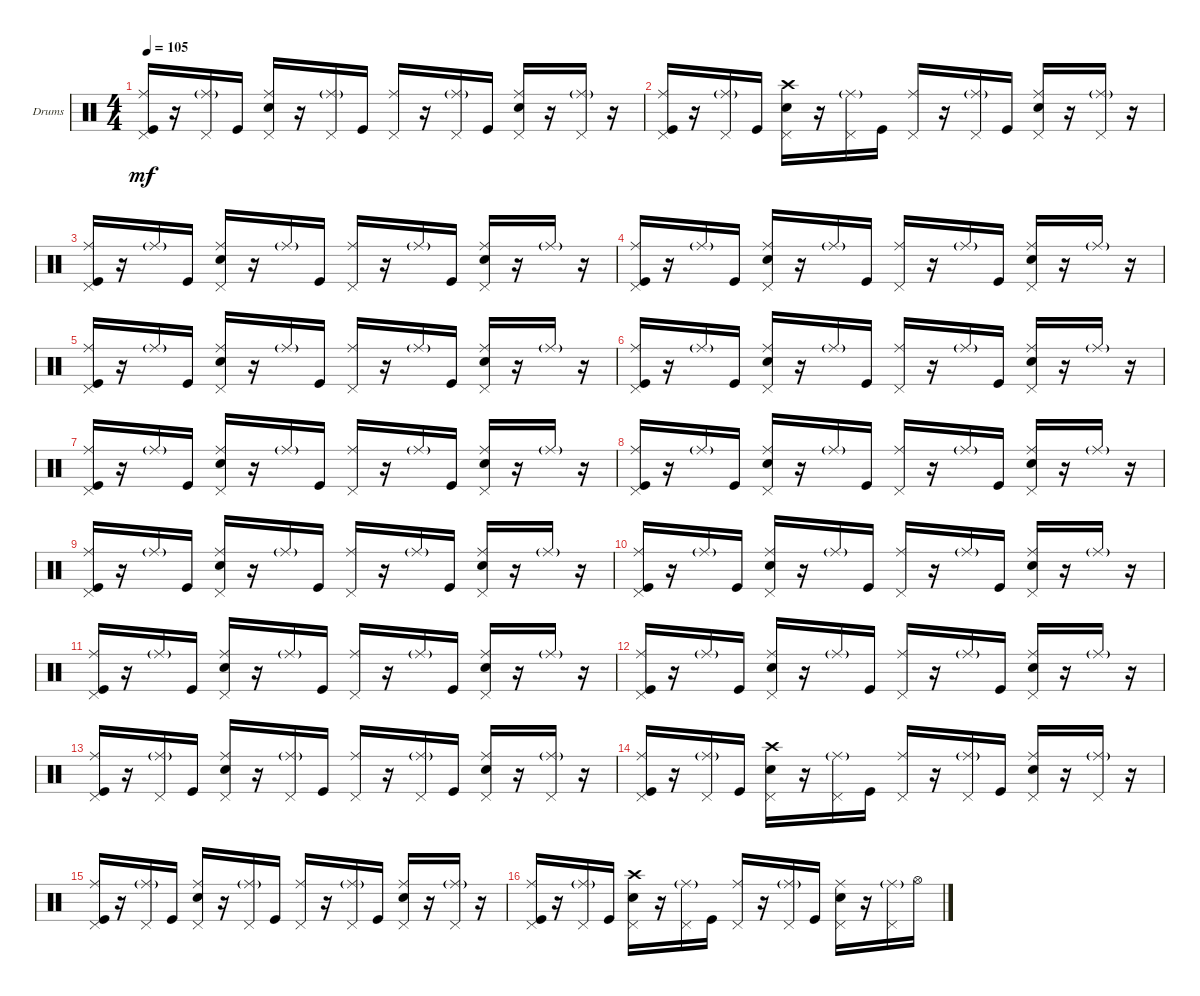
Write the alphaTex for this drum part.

\defaultSystemsLayout 4
\bracketExtendMode groupsimilarinstruments
\firstSystemTrackNameOrientation horizontal
\otherSystemsTrackNameOrientation horizontal
\track ("Godd" "Drums") {instrument percussion}
\staff {score}
\articulation defaults
\ts (4 4)
\tempo 105
\clef neutral
\ks c
("Pedal Hi-Hat (hit)" "Kick (hit)" "Ride (middle)").16{dy mf} r.16 ("Pedal Hi-Hat (hit)" "Ride (middle)"{g}).16 "Kick (hit)".16 ("Pedal Hi-Hat (hit)" "Snare (hit) 2" "Ride (middle)").16 r.16 ("Pedal Hi-Hat (hit)" "Ride (middle)"{g}).16 "Kick (hit)".16 ("Pedal Hi-Hat (hit)" "Ride (middle)").16 r.16 ("Pedal Hi-Hat (hit)" "Ride (middle)"{g}).16 "Kick (hit)".16 ("Pedal Hi-Hat (hit)" "Ride (middle)" "Snare (hit) 2").16 r.16 ("Pedal Hi-Hat (hit)" "Ride (middle)"{g}).16 r.16 |
("Pedal Hi-Hat (hit)" "Kick (hit)" "Ride (middle)").16 r.16 ("Pedal Hi-Hat (hit)" "Ride (middle)"{g}).16 "Kick (hit)".16 ("Pedal Hi-Hat (hit)" "Snare (hit) 2" "Crash high (hit)").16 r.16 ("Pedal Hi-Hat (hit)" "Ride (middle)"{g}).16 "Kick (hit)".16 ("Pedal Hi-Hat (hit)" "Ride (middle)").16 r.16 ("Pedal Hi-Hat (hit)" "Ride (middle)"{g}).16 "Kick (hit)".16 ("Pedal Hi-Hat (hit)" "Ride (middle)" "Snare (hit) 2").16 r.16 ("Pedal Hi-Hat (hit)" "Ride (middle)"{g}).16 r.16 |
("Pedal Hi-Hat (hit)" "Kick (hit)" "Ride (middle)").16 r.16 "Ride (middle)"{g}.16 "Kick (hit)".16 ("Pedal Hi-Hat (hit)" "Snare (hit) 2" "Ride (middle)").16 r.16 "Ride (middle)"{g}.16 "Kick (hit)".16 ("Pedal Hi-Hat (hit)" "Ride (middle)").16 r.16 "Ride (middle)"{g}.16 "Kick (hit)".16 ("Pedal Hi-Hat (hit)" "Ride (middle)" "Snare (hit) 2").16 r.16 "Ride (middle)"{g}.16 r.16 |
("Pedal Hi-Hat (hit)" "Kick (hit)" "Ride (middle)").16 r.16 "Ride (middle)"{g}.16 "Kick (hit)".16 ("Pedal Hi-Hat (hit)" "Snare (hit) 2" "Ride (middle)").16 r.16 "Ride (middle)"{g}.16 "Kick (hit)".16 ("Pedal Hi-Hat (hit)" "Ride (middle)").16 r.16 "Ride (middle)"{g}.16 "Kick (hit)".16 ("Pedal Hi-Hat (hit)" "Ride (middle)" "Snare (hit) 2").16 r.16 "Ride (middle)"{g}.16 r.16 |
("Pedal Hi-Hat (hit)" "Kick (hit)" "Ride (middle)").16 r.16 "Ride (middle)"{g}.16 "Kick (hit)".16 ("Pedal Hi-Hat (hit)" "Snare (hit) 2" "Ride (middle)").16 r.16 "Ride (middle)"{g}.16 "Kick (hit)".16 ("Pedal Hi-Hat (hit)" "Ride (middle)").16 r.16 "Ride (middle)"{g}.16 "Kick (hit)".16 ("Pedal Hi-Hat (hit)" "Ride (middle)" "Snare (hit) 2").16 r.16 "Ride (middle)"{g}.16 r.16 |
("Pedal Hi-Hat (hit)" "Kick (hit)" "Ride (middle)").16 r.16 "Ride (middle)"{g}.16 "Kick (hit)".16 ("Pedal Hi-Hat (hit)" "Snare (hit) 2" "Ride (middle)").16 r.16 "Ride (middle)"{g}.16 "Kick (hit)".16 ("Pedal Hi-Hat (hit)" "Ride (middle)").16 r.16 "Ride (middle)"{g}.16 "Kick (hit)".16 ("Pedal Hi-Hat (hit)" "Ride (middle)" "Snare (hit) 2").16 r.16 "Ride (middle)"{g}.16 r.16 |
("Pedal Hi-Hat (hit)" "Kick (hit)" "Ride (middle)").16 r.16 "Ride (middle)"{g}.16 "Kick (hit)".16 ("Pedal Hi-Hat (hit)" "Snare (hit) 2" "Ride (middle)").16 r.16 "Ride (middle)"{g}.16 "Kick (hit)".16 ("Pedal Hi-Hat (hit)" "Ride (middle)").16 r.16 "Ride (middle)"{g}.16 "Kick (hit)".16 ("Pedal Hi-Hat (hit)" "Ride (middle)" "Snare (hit) 2").16 r.16 "Ride (middle)"{g}.16 r.16 |
("Pedal Hi-Hat (hit)" "Kick (hit)" "Ride (middle)").16 r.16 "Ride (middle)"{g}.16 "Kick (hit)".16 ("Pedal Hi-Hat (hit)" "Snare (hit) 2" "Ride (middle)").16 r.16 "Ride (middle)"{g}.16 "Kick (hit)".16 ("Pedal Hi-Hat (hit)" "Ride (middle)").16 r.16 "Ride (middle)"{g}.16 "Kick (hit)".16 ("Pedal Hi-Hat (hit)" "Ride (middle)" "Snare (hit) 2").16 r.16 "Ride (middle)"{g}.16 r.16 |
("Pedal Hi-Hat (hit)" "Kick (hit)" "Ride (middle)").16 r.16 "Ride (middle)"{g}.16 "Kick (hit)".16 ("Pedal Hi-Hat (hit)" "Snare (hit) 2" "Ride (middle)").16 r.16 "Ride (middle)"{g}.16 "Kick (hit)".16 ("Pedal Hi-Hat (hit)" "Ride (middle)").16 r.16 "Ride (middle)"{g}.16 "Kick (hit)".16 ("Pedal Hi-Hat (hit)" "Ride (middle)" "Snare (hit) 2").16 r.16 "Ride (middle)"{g}.16 r.16 |
("Pedal Hi-Hat (hit)" "Kick (hit)" "Ride (middle)").16 r.16 "Ride (middle)"{g}.16 "Kick (hit)".16 ("Pedal Hi-Hat (hit)" "Snare (hit) 2" "Ride (middle)").16 r.16 "Ride (middle)"{g}.16 "Kick (hit)".16 ("Pedal Hi-Hat (hit)" "Ride (middle)").16 r.16 "Ride (middle)"{g}.16 "Kick (hit)".16 ("Pedal Hi-Hat (hit)" "Ride (middle)" "Snare (hit) 2").16 r.16 "Ride (middle)"{g}.16 r.16 |
("Pedal Hi-Hat (hit)" "Kick (hit)" "Ride (middle)").16 r.16 "Ride (middle)"{g}.16 "Kick (hit)".16 ("Pedal Hi-Hat (hit)" "Snare (hit) 2" "Ride (middle)").16 r.16 "Ride (middle)"{g}.16 "Kick (hit)".16 ("Pedal Hi-Hat (hit)" "Ride (middle)").16 r.16 "Ride (middle)"{g}.16 "Kick (hit)".16 ("Pedal Hi-Hat (hit)" "Ride (middle)" "Snare (hit) 2").16 r.16 "Ride (middle)"{g}.16 r.16 |
("Pedal Hi-Hat (hit)" "Kick (hit)" "Ride (middle)").16 r.16 "Ride (middle)"{g}.16 "Kick (hit)".16 ("Pedal Hi-Hat (hit)" "Snare (hit) 2" "Ride (middle)").16 r.16 "Ride (middle)"{g}.16 "Kick (hit)".16 ("Pedal Hi-Hat (hit)" "Ride (middle)").16 r.16 "Ride (middle)"{g}.16 "Kick (hit)".16 ("Pedal Hi-Hat (hit)" "Ride (middle)" "Snare (hit) 2").16 r.16 "Ride (middle)"{g}.16 r.16 |
("Pedal Hi-Hat (hit)" "Kick (hit)" "Ride (middle)").16 r.16 ("Pedal Hi-Hat (hit)" "Ride (middle)"{g}).16 "Kick (hit)".16 ("Pedal Hi-Hat (hit)" "Snare (hit) 2" "Ride (middle)").16 r.16 ("Pedal Hi-Hat (hit)" "Ride (middle)"{g}).16 "Kick (hit)".16 ("Pedal Hi-Hat (hit)" "Ride (middle)").16 r.16 ("Pedal Hi-Hat (hit)" "Ride (middle)"{g}).16 "Kick (hit)".16 ("Pedal Hi-Hat (hit)" "Ride (middle)" "Snare (hit) 2").16 r.16 ("Pedal Hi-Hat (hit)" "Ride (middle)"{g}).16 r.16 |
("Pedal Hi-Hat (hit)" "Kick (hit)" "Ride (middle)").16 r.16 ("Pedal Hi-Hat (hit)" "Ride (middle)"{g}).16 "Kick (hit)".16 ("Pedal Hi-Hat (hit)" "Snare (hit) 2" "Crash high (hit)").16 r.16 ("Pedal Hi-Hat (hit)" "Ride (middle)"{g}).16 "Kick (hit)".16 ("Pedal Hi-Hat (hit)" "Ride (middle)").16 r.16 ("Pedal Hi-Hat (hit)" "Ride (middle)"{g}).16 "Kick (hit)".16 ("Pedal Hi-Hat (hit)" "Ride (middle)" "Snare (hit) 2").16 r.16 ("Pedal Hi-Hat (hit)" "Ride (middle)"{g}).16 r.16 |
("Pedal Hi-Hat (hit)" "Kick (hit)" "Ride (middle)").16 r.16 ("Pedal Hi-Hat (hit)" "Ride (middle)"{g}).16 "Kick (hit)".16 ("Pedal Hi-Hat (hit)" "Snare (hit) 2" "Ride (middle)").16 r.16 ("Pedal Hi-Hat (hit)" "Ride (middle)"{g}).16 "Kick (hit)".16 ("Pedal Hi-Hat (hit)" "Ride (middle)").16 r.16 ("Pedal Hi-Hat (hit)" "Ride (middle)"{g}).16 "Kick (hit)".16 ("Pedal Hi-Hat (hit)" "Ride (middle)" "Snare (hit) 2").16 r.16 ("Pedal Hi-Hat (hit)" "Ride (middle)"{g}).16 r.16 |
("Pedal Hi-Hat (hit)" "Kick (hit)" "Ride (middle)").16 r.16 ("Pedal Hi-Hat (hit)" "Ride (middle)"{g}).16 "Kick (hit)".16 ("Pedal Hi-Hat (hit)" "Snare (hit) 2" "Crash high (hit)").16 r.16 ("Pedal Hi-Hat (hit)" "Ride (middle)"{g}).16 "Kick (hit)".16 ("Pedal Hi-Hat (hit)" "Ride (middle)").16 r.16 ("Pedal Hi-Hat (hit)" "Ride (middle)"{g}).16 "Kick (hit)".16 ("Pedal Hi-Hat (hit)" "Ride (middle)" "Snare (hit) 2").16 r.16 ("Pedal Hi-Hat (hit)" "Ride (middle)"{g}).16 "Hi-Hat (open)".16
